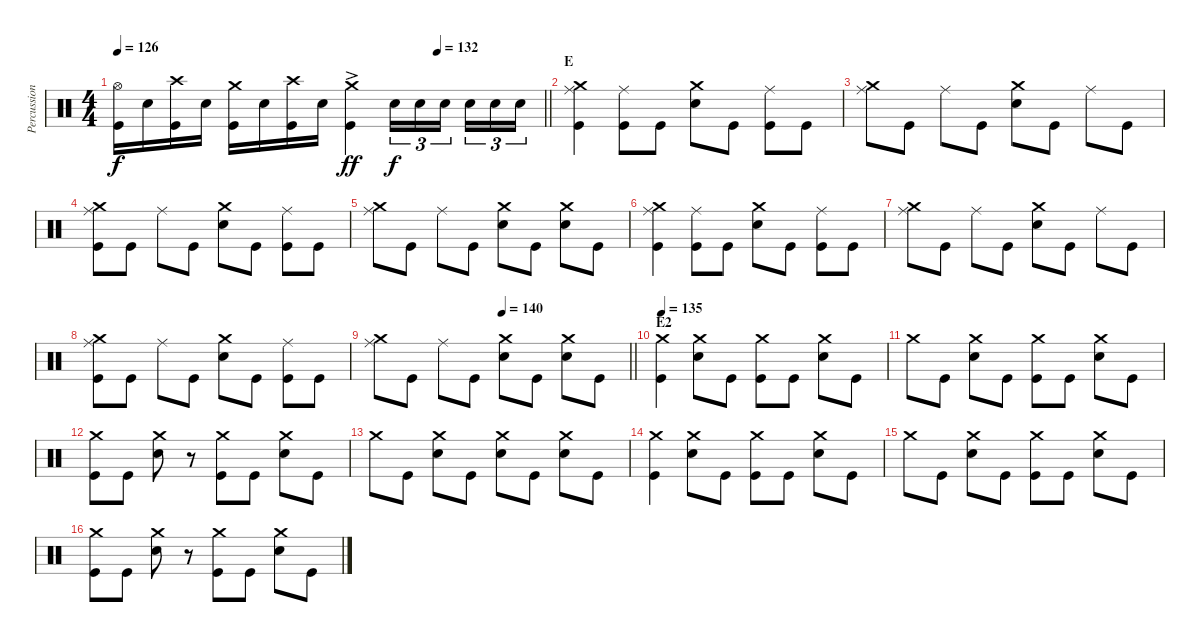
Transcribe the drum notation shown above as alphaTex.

\track ("Percussion" "Percussion") {instrument percussion}
\staff {score}
\articulation defaults
\ts (4 4)
\tempo 126
\tempo (132 0.75)
\clef neutral
\barLineRight lightlight
\ks c
("Kick (hit)" "Hi-Hat (open)").16{dy f} "Snare (hit) 2".16 ("Kick (hit)" "Crash high (hit)").16 "Snare (hit) 2".16 ("Kick (hit)" "Crash medium (hit)").16 "Snare (hit) 2".16 ("Kick (hit)" "Crash high (hit)").16 "Snare (hit) 2".16 ("Kick (hit)" "Crash medium (hit)"{ac}).4{dy ff} "Snare (hit) 2".16{tu (3 2) dy f} "Snare (hit) 2".16{tu (3 2)} "Snare (hit) 2".16{tu (3 2)} "Snare (hit) 2".16{tu (3 2)} "Snare (hit) 2".16{tu (3 2)} "Snare (hit) 2".16{tu (3 2)} |
\section ("" "E")
("Kick (hit)" "Ride (middle)" "Crash medium (hit)").4 ("Kick (hit)" "Ride (middle)").8 "Kick (hit)".8 ("Snare (hit) 2" "Crash medium (hit)").8 "Kick (hit)".8 ("Kick (hit)" "Ride (middle)").8 "Kick (hit)".8 |
("Crash medium (hit)" "Ride (middle)").8 "Kick (hit)".8 "Ride (middle)".8 "Kick (hit)".8 ("Snare (hit) 2" "Crash medium (hit)").8 "Kick (hit)".8 "Ride (middle)".8 "Kick (hit)".8 |
("Kick (hit)" "Crash medium (hit)" "Ride (middle)").8 "Kick (hit)".8 "Ride (middle)".8 "Kick (hit)".8 ("Snare (hit) 2" "Crash medium (hit)").8 "Kick (hit)".8 ("Kick (hit)" "Ride (middle)").8 "Kick (hit)".8 |
("Crash medium (hit)" "Ride (middle)").8 "Kick (hit)".8 "Ride (middle)".8 "Kick (hit)".8 ("Snare (hit) 2" "Crash medium (hit)").8 "Kick (hit)".8 ("Snare (hit) 2" "Crash medium (hit)").8 "Kick (hit)".8 |
("Kick (hit)" "Ride (middle)" "Crash medium (hit)").4 ("Kick (hit)" "Ride (middle)").8 "Kick (hit)".8 ("Snare (hit) 2" "Crash medium (hit)").8 "Kick (hit)".8 ("Kick (hit)" "Ride (middle)").8 "Kick (hit)".8 |
("Crash medium (hit)" "Ride (middle)").8 "Kick (hit)".8 "Ride (middle)".8 "Kick (hit)".8 ("Snare (hit) 2" "Crash medium (hit)").8 "Kick (hit)".8 "Ride (middle)".8 "Kick (hit)".8 |
("Kick (hit)" "Crash medium (hit)" "Ride (middle)").8 "Kick (hit)".8 "Ride (middle)".8 "Kick (hit)".8 ("Snare (hit) 2" "Crash medium (hit)").8 "Kick (hit)".8 ("Kick (hit)" "Ride (middle)").8 "Kick (hit)".8 |
\tempo (140 0.5)
\barLineRight lightlight
("Crash medium (hit)" "Ride (middle)").8 "Kick (hit)".8 "Ride (middle)".8 "Kick (hit)".8 ("Snare (hit) 2" "Crash medium (hit)").8 "Kick (hit)".8 ("Snare (hit) 2" "Crash medium (hit)").8 "Kick (hit)".8 |
\section ("" "E2")
\tempo 135
("Kick (hit)" "Crash medium (hit)").4 ("Snare (hit) 2" "Crash medium (hit)").8 "Kick (hit)".8 ("Kick (hit)" "Crash medium (hit)").8 "Kick (hit)".8 ("Snare (hit) 2" "Crash medium (hit)").8 "Kick (hit)".8 |
"Crash medium (hit)".8 "Kick (hit)".8 ("Snare (hit) 2" "Crash medium (hit)").8 "Kick (hit)".8 ("Kick (hit)" "Crash medium (hit)").8 "Kick (hit)".8 ("Snare (hit) 2" "Crash medium (hit)").8 "Kick (hit)".8 |
("Kick (hit)" "Crash medium (hit)").8 "Kick (hit)".8 ("Snare (hit) 2" "Crash medium (hit)").8 r.8 ("Kick (hit)" "Crash medium (hit)").8 "Kick (hit)".8 ("Snare (hit) 2" "Crash medium (hit)").8 "Kick (hit)".8 |
"Crash medium (hit)".8 "Kick (hit)".8 ("Snare (hit) 2" "Crash medium (hit)").8 "Kick (hit)".8 ("Snare (hit) 2" "Crash medium (hit)").8 "Kick (hit)".8 ("Snare (hit) 2" "Crash medium (hit)").8 "Kick (hit)".8 |
("Kick (hit)" "Crash medium (hit)").4 ("Snare (hit) 2" "Crash medium (hit)").8 "Kick (hit)".8 ("Kick (hit)" "Crash medium (hit)").8 "Kick (hit)".8 ("Snare (hit) 2" "Crash medium (hit)").8 "Kick (hit)".8 |
"Crash medium (hit)".8 "Kick (hit)".8 ("Snare (hit) 2" "Crash medium (hit)").8 "Kick (hit)".8 ("Kick (hit)" "Crash medium (hit)").8 "Kick (hit)".8 ("Snare (hit) 2" "Crash medium (hit)").8 "Kick (hit)".8 |
("Kick (hit)" "Crash medium (hit)").8 "Kick (hit)".8 ("Snare (hit) 2" "Crash medium (hit)").8 r.8 ("Kick (hit)" "Crash medium (hit)").8 "Kick (hit)".8 ("Snare (hit) 2" "Crash medium (hit)").8 "Kick (hit)".8
